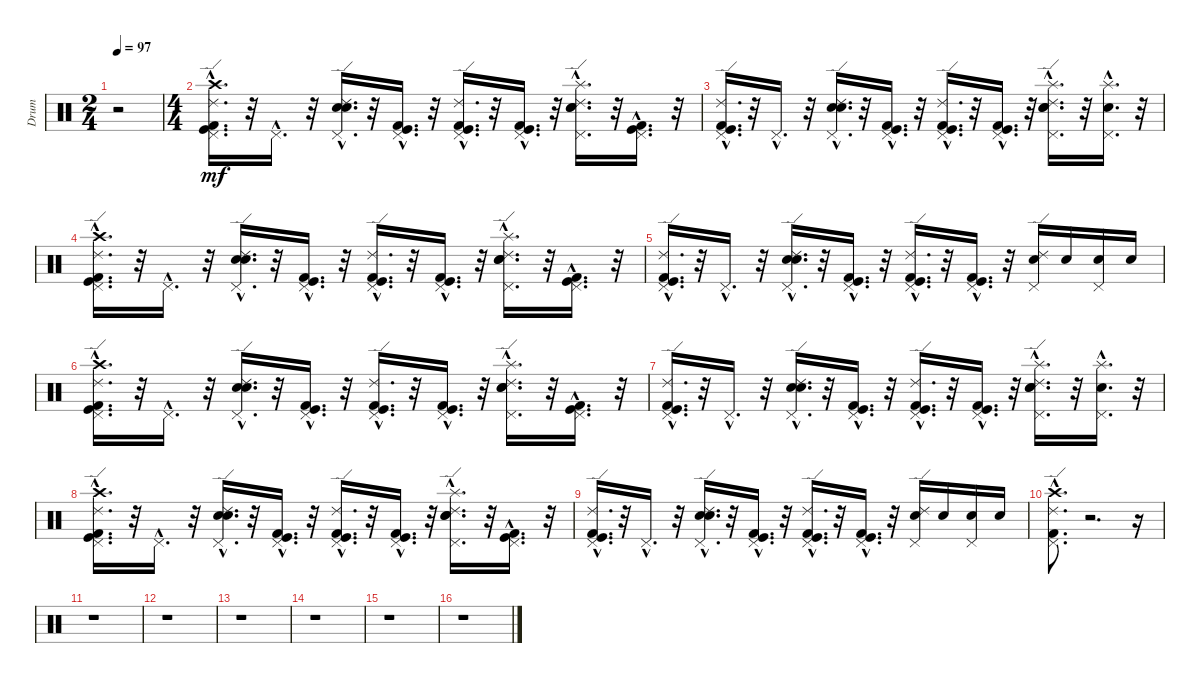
\track ("Drum" "Drum") {instrument percussion}
\staff {score}
\articulation defaults
\ts (2 4)
\tempo 97
\clef neutral
\ks c
r.2{dy mf} |
\ts (4 4)
("Pedal Hi-Hat (hit)"{hac} "Ride (edge) 2"{hac} "Kick (hit) 2"{hac} "Kick (hit)"{hac} "Crash high (hit)"{hac}).16{d} r.32 "Pedal Hi-Hat (hit)"{hac}.16{d} r.32 ("Pedal Hi-Hat (hit)"{hac} "Ride (edge) 2"{hac} "Snare (hit) 2"{hac} "Electric Snare (hit)"{hac}).16{d} r.32 ("Pedal Hi-Hat (hit)"{hac} "Kick (hit)"{hac} "Kick (hit) 2"{hac}).16{d} r.32 ("Pedal Hi-Hat (hit)"{hac} "Ride (edge) 2"{hac} "Kick (hit)"{hac} "Kick (hit) 2"{hac}).16{d} r.32 ("Pedal Hi-Hat (hit)"{hac} "Kick (hit)"{hac} "Kick (hit) 2"{hac}).16{d} r.32 ("Pedal Hi-Hat (hit)"{hac} "Ride (edge) 2"{hac} "Snare (hit) 2"{hac} "Electric Snare (hit)"{hac} "Splash (hit)"{hac}).16{d} r.32 ("Kick (hit) 2"{hac} "Pedal Hi-Hat (hit)"{hac} "Kick (hit)"{hac}).16{d} r.32 |
("Kick (hit)"{hac} "Kick (hit) 2"{hac} "Ride (edge) 2"{hac} "Pedal Hi-Hat (hit)"{hac}).16{d} r.32 "Pedal Hi-Hat (hit)"{hac}.16{d} r.32 ("Electric Snare (hit)"{hac} "Snare (hit) 2"{hac} "Ride (edge) 2"{hac} "Pedal Hi-Hat (hit)"{hac}).16{d} r.32 ("Kick (hit) 2"{hac} "Kick (hit)"{hac} "Pedal Hi-Hat (hit)"{hac}).16{d} r.32 ("Kick (hit) 2"{hac} "Kick (hit)"{hac} "Ride (edge) 2"{hac} "Pedal Hi-Hat (hit)"{hac}).16{d} r.32 ("Kick (hit) 2"{hac} "Kick (hit)"{hac} "Pedal Hi-Hat (hit)"{hac}).16{d} r.32 ("Splash (hit)"{hac} "Electric Snare (hit)"{hac} "Snare (hit) 2"{hac} "Ride (edge) 2"{hac} "Pedal Hi-Hat (hit)"{hac}).16{d} r.32 ("Pedal Hi-Hat (hit)"{hac} "Snare (hit) 2"{hac} "Splash (hit)"{hac}).16{d} r.32 |
("Crash high (hit)"{hac} "Kick (hit)"{hac} "Kick (hit) 2"{hac} "Ride (edge) 2"{hac} "Pedal Hi-Hat (hit)"{hac}).16{d} r.32 "Pedal Hi-Hat (hit)"{hac}.16{d} r.32 ("Electric Snare (hit)"{hac} "Snare (hit) 2"{hac} "Ride (edge) 2"{hac} "Pedal Hi-Hat (hit)"{hac}).16{d} r.32 ("Kick (hit) 2"{hac} "Kick (hit)"{hac} "Pedal Hi-Hat (hit)"{hac}).16{d} r.32 ("Kick (hit) 2"{hac} "Kick (hit)"{hac} "Ride (edge) 2"{hac} "Pedal Hi-Hat (hit)"{hac}).16{d} r.32 ("Kick (hit) 2"{hac} "Kick (hit)"{hac} "Pedal Hi-Hat (hit)"{hac}).16{d} r.32 ("Splash (hit)"{hac} "Electric Snare (hit)"{hac} "Snare (hit) 2"{hac} "Ride (edge) 2"{hac} "Pedal Hi-Hat (hit)"{hac}).16{d} r.32 ("Kick (hit)"{hac} "Pedal Hi-Hat (hit)"{hac} "Kick (hit) 2"{hac}).16{d} r.32 |
("Ride (edge) 2"{hac} "Kick (hit) 2"{hac} "Pedal Hi-Hat (hit)"{hac} "Kick (hit)"{hac}).16{d} r.32 "Pedal Hi-Hat (hit)"{hac}.16{d} r.32 ("Snare (hit) 2"{hac} "Electric Snare (hit)"{hac} "Ride (edge) 2"{hac} "Pedal Hi-Hat (hit)"{hac}).16{d} r.32 ("Kick (hit)"{hac} "Kick (hit) 2"{hac} "Pedal Hi-Hat (hit)"{hac}).16{d} r.32 ("Pedal Hi-Hat (hit)"{hac} "Ride (edge) 2"{hac} "Kick (hit) 2"{hac} "Kick (hit)"{hac}).16{d} r.32 ("Kick (hit)"{hac} "Kick (hit) 2"{hac} "Pedal Hi-Hat (hit)"{hac}).16{d} r.32 ("Snare (hit) 2" "Pedal Hi-Hat (hit)" "Ride (edge) 2").16 "Snare (hit) 2".16 ("Pedal Hi-Hat (hit)" "Snare (hit) 2").16 "Snare (hit) 2".16 |
("Crash high (hit)"{hac} "Kick (hit)"{hac} "Kick (hit) 2"{hac} "Ride (edge) 2"{hac} "Pedal Hi-Hat (hit)"{hac}).16{d} r.32 "Pedal Hi-Hat (hit)"{hac}.16{d} r.32 ("Electric Snare (hit)"{hac} "Snare (hit) 2"{hac} "Ride (edge) 2"{hac} "Pedal Hi-Hat (hit)"{hac}).16{d} r.32 ("Kick (hit) 2"{hac} "Kick (hit)"{hac} "Pedal Hi-Hat (hit)"{hac}).16{d} r.32 ("Kick (hit) 2"{hac} "Kick (hit)"{hac} "Ride (edge) 2"{hac} "Pedal Hi-Hat (hit)"{hac}).16{d} r.32 ("Kick (hit) 2"{hac} "Kick (hit)"{hac} "Pedal Hi-Hat (hit)"{hac}).16{d} r.32 ("Splash (hit)"{hac} "Electric Snare (hit)"{hac} "Snare (hit) 2"{hac} "Ride (edge) 2"{hac} "Pedal Hi-Hat (hit)"{hac}).16{d} r.32 ("Kick (hit)"{hac} "Pedal Hi-Hat (hit)"{hac} "Kick (hit) 2"{hac}).16{d} r.32 |
("Pedal Hi-Hat (hit)"{hac} "Ride (edge) 2"{hac} "Kick (hit) 2"{hac} "Kick (hit)"{hac}).16{d} r.32 "Pedal Hi-Hat (hit)"{hac}.16{d} r.32 ("Pedal Hi-Hat (hit)"{hac} "Ride (edge) 2"{hac} "Snare (hit) 2"{hac} "Electric Snare (hit)"{hac}).16{d} r.32 ("Pedal Hi-Hat (hit)"{hac} "Kick (hit)"{hac} "Kick (hit) 2"{hac}).16{d} r.32 ("Pedal Hi-Hat (hit)"{hac} "Ride (edge) 2"{hac} "Kick (hit)"{hac} "Kick (hit) 2"{hac}).16{d} r.32 ("Pedal Hi-Hat (hit)"{hac} "Kick (hit)"{hac} "Kick (hit) 2"{hac}).16{d} r.32 ("Pedal Hi-Hat (hit)"{hac} "Ride (edge) 2"{hac} "Snare (hit) 2"{hac} "Electric Snare (hit)"{hac} "Splash (hit)"{hac}).16{d} r.32 ("Splash (hit)"{hac} "Snare (hit) 2"{hac} "Pedal Hi-Hat (hit)"{hac}).16{d} r.32 |
("Pedal Hi-Hat (hit)"{hac} "Ride (edge) 2"{hac} "Kick (hit) 2"{hac} "Kick (hit)"{hac} "Crash high (hit)"{hac}).16{d} r.32 "Pedal Hi-Hat (hit)"{hac}.16{d} r.32 ("Pedal Hi-Hat (hit)"{hac} "Ride (edge) 2"{hac} "Snare (hit) 2"{hac} "Electric Snare (hit)"{hac}).16{d} r.32 ("Pedal Hi-Hat (hit)"{hac} "Kick (hit)"{hac} "Kick (hit) 2"{hac}).16{d} r.32 ("Pedal Hi-Hat (hit)"{hac} "Ride (edge) 2"{hac} "Kick (hit)"{hac} "Kick (hit) 2"{hac}).16{d} r.32 ("Pedal Hi-Hat (hit)"{hac} "Kick (hit)"{hac} "Kick (hit) 2"{hac}).16{d} r.32 ("Pedal Hi-Hat (hit)"{hac} "Ride (edge) 2"{hac} "Snare (hit) 2"{hac} "Electric Snare (hit)"{hac} "Splash (hit)"{hac}).16{d} r.32 ("Kick (hit) 2"{hac} "Pedal Hi-Hat (hit)"{hac} "Kick (hit)"{hac}).16{d} r.32 |
("Pedal Hi-Hat (hit)"{hac} "Kick (hit)"{hac} "Ride (edge) 2"{hac} "Kick (hit) 2"{hac}).16{d} r.32 "Pedal Hi-Hat (hit)"{hac}.16{d} r.32 ("Ride (edge) 2"{hac} "Snare (hit) 2"{hac} "Electric Snare (hit)"{hac} "Pedal Hi-Hat (hit)"{hac}).16{d} r.32 ("Kick (hit)"{hac} "Pedal Hi-Hat (hit)"{hac} "Kick (hit) 2"{hac}).16{d} r.32 ("Ride (edge) 2"{hac} "Kick (hit)"{hac} "Pedal Hi-Hat (hit)"{hac} "Kick (hit) 2"{hac}).16{d} r.32 ("Kick (hit) 2"{hac} "Pedal Hi-Hat (hit)"{hac} "Kick (hit)"{hac}).16{d} r.32 ("Ride (edge) 2" "Pedal Hi-Hat (hit)" "Snare (hit) 2").16 "Snare (hit) 2".16 ("Snare (hit) 2" "Pedal Hi-Hat (hit)").16 "Snare (hit) 2".16 |
("Kick (hit) 2"{hac} "Pedal Hi-Hat (hit)"{hac} "Ride (edge) 2"{hac} "Crash high (hit)"{hac}).8{d} r.2{d} r.16 |
r.1 |
r.1 |
r.1 |
r.1 |
r.1 |
r.1
